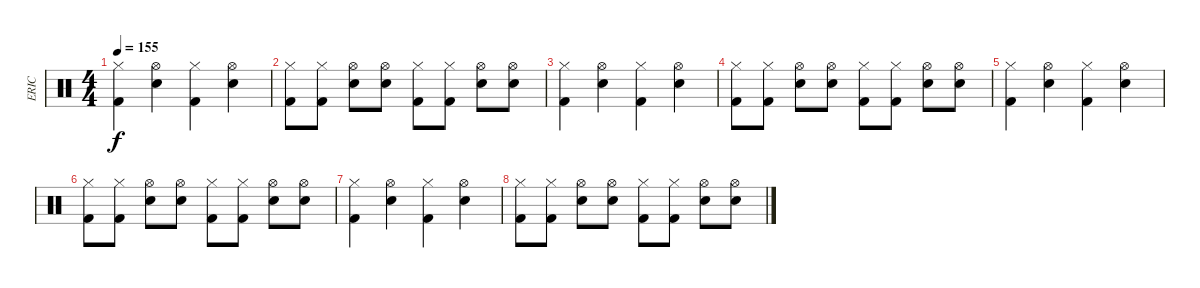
\track ("ERIC" "ERIC") {instrument percussion}
\staff {score}
\articulation defaults
\ts (4 4)
\tempo 155
\clef neutral
\ks c
("Hi-Hat (closed)" "Kick (hit) 2").4{dy f} ("Hi-Hat (open)" "Snare (hit) 2").4 ("Hi-Hat (closed)" "Kick (hit) 2").4 ("Hi-Hat (open)" "Snare (hit) 2").4 |
("Hi-Hat (closed)" "Kick (hit) 2").8 ("Hi-Hat (closed)" "Kick (hit) 2").8 ("Hi-Hat (open)" "Snare (hit) 2").8 ("Hi-Hat (open)" "Snare (hit) 2").8 ("Hi-Hat (closed)" "Kick (hit) 2").8 ("Hi-Hat (closed)" "Kick (hit) 2").8 ("Hi-Hat (open)" "Snare (hit) 2").8 ("Hi-Hat (open)" "Snare (hit) 2").8 |
("Hi-Hat (closed)" "Kick (hit) 2").4 ("Hi-Hat (open)" "Snare (hit) 2").4 ("Hi-Hat (closed)" "Kick (hit) 2").4 ("Hi-Hat (open)" "Snare (hit) 2").4 |
("Hi-Hat (closed)" "Kick (hit) 2").8 ("Hi-Hat (closed)" "Kick (hit) 2").8 ("Hi-Hat (open)" "Snare (hit) 2").8 ("Hi-Hat (open)" "Snare (hit) 2").8 ("Hi-Hat (closed)" "Kick (hit) 2").8 ("Hi-Hat (closed)" "Kick (hit) 2").8 ("Hi-Hat (open)" "Snare (hit) 2").8 ("Hi-Hat (open)" "Snare (hit) 2").8 |
("Hi-Hat (closed)" "Kick (hit) 2").4 ("Hi-Hat (open)" "Snare (hit) 2").4 ("Hi-Hat (closed)" "Kick (hit) 2").4 ("Hi-Hat (open)" "Snare (hit) 2").4 |
("Hi-Hat (closed)" "Kick (hit) 2").8 ("Hi-Hat (closed)" "Kick (hit) 2").8 ("Hi-Hat (open)" "Snare (hit) 2").8 ("Hi-Hat (open)" "Snare (hit) 2").8 ("Hi-Hat (closed)" "Kick (hit) 2").8 ("Hi-Hat (closed)" "Kick (hit) 2").8 ("Hi-Hat (open)" "Snare (hit) 2").8 ("Hi-Hat (open)" "Snare (hit) 2").8 |
("Hi-Hat (closed)" "Kick (hit) 2").4 ("Hi-Hat (open)" "Snare (hit) 2").4 ("Hi-Hat (closed)" "Kick (hit) 2").4 ("Hi-Hat (open)" "Snare (hit) 2").4 |
("Hi-Hat (closed)" "Kick (hit) 2").8 ("Hi-Hat (closed)" "Kick (hit) 2").8 ("Hi-Hat (open)" "Snare (hit) 2").8 ("Hi-Hat (open)" "Snare (hit) 2").8 ("Hi-Hat (closed)" "Kick (hit) 2").8 ("Hi-Hat (closed)" "Kick (hit) 2").8 ("Hi-Hat (open)" "Snare (hit) 2").8 ("Hi-Hat (open)" "Snare (hit) 2").8
